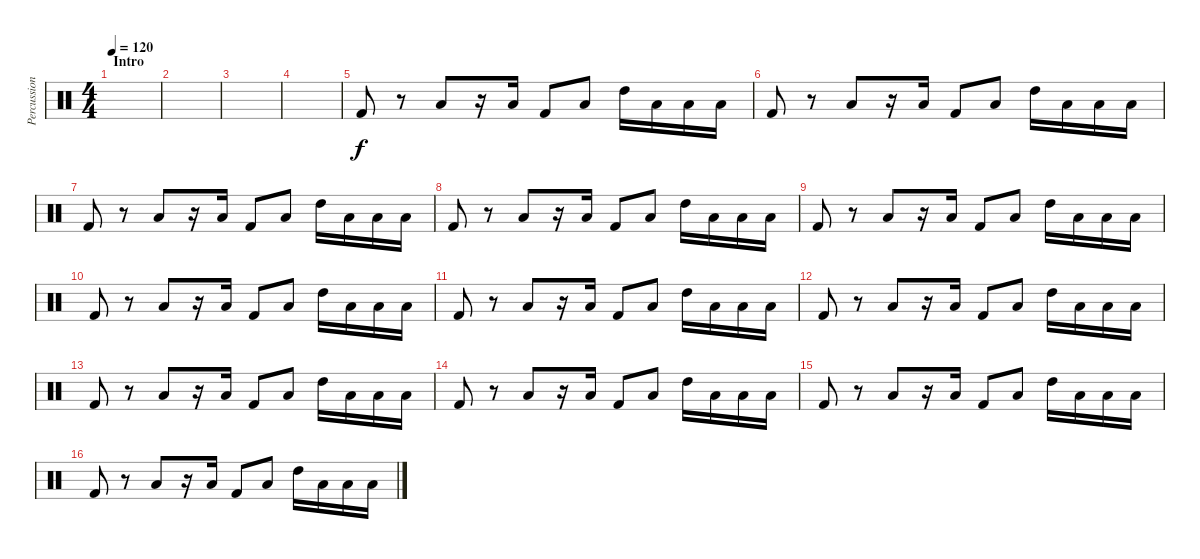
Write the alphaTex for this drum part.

\track ("Percussions" "Percussion") {instrument percussion}
\staff {score}
\articulation defaults
\ts (4 4)
\section ("" "Intro")
\tempo 120
\clef neutral
\ks c
|
|
|
|
"Kick (hit) 2".8 r.8 "Low Floor Tom (hit)".8 r.16 "Low Floor Tom (hit)".16 "Kick (hit) 2".8 "Low Floor Tom (hit)".8 "High Tom (hit)".16 "Low Tom (hit)".16 "Low Floor Tom (hit)".16 "Low Tom (hit)".16 |
"Kick (hit) 2".8 r.8 "Low Floor Tom (hit)".8 r.16 "Low Floor Tom (hit)".16 "Kick (hit) 2".8 "Low Floor Tom (hit)".8 "High Tom (hit)".16 "Low Tom (hit)".16 "Low Floor Tom (hit)".16 "Low Tom (hit)".16 |
"Kick (hit) 2".8 r.8 "Low Floor Tom (hit)".8 r.16 "Low Floor Tom (hit)".16 "Kick (hit) 2".8 "Low Floor Tom (hit)".8 "High Tom (hit)".16 "Low Tom (hit)".16 "Low Floor Tom (hit)".16 "Low Tom (hit)".16 |
"Kick (hit) 2".8 r.8 "Low Floor Tom (hit)".8 r.16 "Low Floor Tom (hit)".16 "Kick (hit) 2".8 "Low Floor Tom (hit)".8 "High Tom (hit)".16 "Low Tom (hit)".16 "Low Floor Tom (hit)".16 "Low Tom (hit)".16 |
"Kick (hit) 2".8 r.8 "Low Floor Tom (hit)".8 r.16 "Low Floor Tom (hit)".16 "Kick (hit) 2".8 "Low Floor Tom (hit)".8 "High Tom (hit)".16 "Low Tom (hit)".16 "Low Floor Tom (hit)".16 "Low Tom (hit)".16 |
"Kick (hit) 2".8 r.8 "Low Floor Tom (hit)".8 r.16 "Low Floor Tom (hit)".16 "Kick (hit) 2".8 "Low Floor Tom (hit)".8 "High Tom (hit)".16 "Low Tom (hit)".16 "Low Floor Tom (hit)".16 "Low Tom (hit)".16 |
"Kick (hit) 2".8 r.8 "Low Floor Tom (hit)".8 r.16 "Low Floor Tom (hit)".16 "Kick (hit) 2".8 "Low Floor Tom (hit)".8 "High Tom (hit)".16 "Low Tom (hit)".16 "Low Floor Tom (hit)".16 "Low Tom (hit)".16 |
"Kick (hit) 2".8 r.8 "Low Floor Tom (hit)".8 r.16 "Low Floor Tom (hit)".16 "Kick (hit) 2".8 "Low Floor Tom (hit)".8 "High Tom (hit)".16 "Low Tom (hit)".16 "Low Floor Tom (hit)".16 "Low Tom (hit)".16 |
"Kick (hit) 2".8 r.8 "Low Floor Tom (hit)".8 r.16 "Low Floor Tom (hit)".16 "Kick (hit) 2".8 "Low Floor Tom (hit)".8 "High Tom (hit)".16 "Low Tom (hit)".16 "Low Floor Tom (hit)".16 "Low Tom (hit)".16 |
"Kick (hit) 2".8 r.8 "Low Floor Tom (hit)".8 r.16 "Low Floor Tom (hit)".16 "Kick (hit) 2".8 "Low Floor Tom (hit)".8 "High Tom (hit)".16 "Low Tom (hit)".16 "Low Floor Tom (hit)".16 "Low Tom (hit)".16 |
"Kick (hit) 2".8 r.8 "Low Floor Tom (hit)".8 r.16 "Low Floor Tom (hit)".16 "Kick (hit) 2".8 "Low Floor Tom (hit)".8 "High Tom (hit)".16 "Low Tom (hit)".16 "Low Floor Tom (hit)".16 "Low Tom (hit)".16 |
"Kick (hit) 2".8 r.8 "Low Floor Tom (hit)".8 r.16 "Low Floor Tom (hit)".16 "Kick (hit) 2".8 "Low Floor Tom (hit)".8 "High Tom (hit)".16 "Low Tom (hit)".16 "Low Floor Tom (hit)".16 "Low Tom (hit)".16
